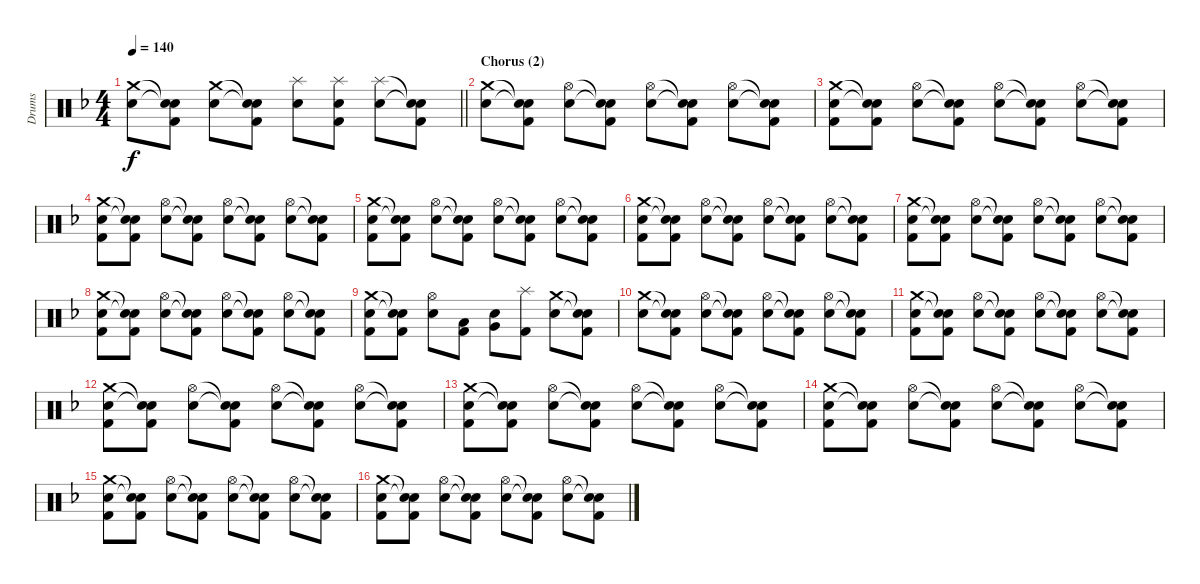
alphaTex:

\track ("Drums" "Drums") {instrument percussion}
\staff {score}
\articulation defaults
\ts (4 4)
\tempo 140
\clef neutral
\barLineRight lightlight
\ks f
("Crash medium (hit)" "Electric Snare (hit)").8{dy f} ("Snare (hit)"{t} "Snare (hit)"{t} "Kick (hit) 2").8 ("Crash medium (hit)" "Electric Snare (hit)").8 ("Snare (hit)"{t} "Snare (hit)"{t} "Kick (hit) 2").8 ("Splash (hit)" "Electric Snare (hit)").8 ("Splash (hit)" "Electric Snare (hit)" "Kick (hit) 2").8 ("Splash (hit)" "Electric Snare (hit)").8 ("Snare (hit)"{t} "Snare (hit)"{t} "Kick (hit) 2").8 |
\section ("" "Chorus (2)")
("Crash medium (hit)" "Electric Snare (hit)").8 ("Snare (hit)"{t} "Snare (hit)"{t} "Kick (hit) 2").8 ("Hi-Hat (open)" "Electric Snare (hit)").8 ("Snare (hit)"{t} "Snare (hit)"{t} "Kick (hit) 2").8 ("Hi-Hat (open)" "Electric Snare (hit)").8 ("Snare (hit)"{t} "Snare (hit)"{t} "Kick (hit) 2").8 ("Hi-Hat (open)" "Electric Snare (hit)").8 ("Snare (hit)"{t} "Snare (hit)"{t} "Kick (hit) 2").8 |
("Crash medium (hit)" "Electric Snare (hit)" "Kick (hit) 2").8 ("Snare (hit)"{t} "Snare (hit)"{t} "Kick (hit) 2").8 ("Hi-Hat (open)" "Electric Snare (hit)").8 ("Snare (hit)"{t} "Snare (hit)"{t} "Kick (hit) 2").8 ("Hi-Hat (open)" "Electric Snare (hit)").8 ("Snare (hit)"{t} "Snare (hit)"{t} "Kick (hit) 2").8 ("Hi-Hat (open)" "Electric Snare (hit)").8 ("Snare (hit)"{t} "Snare (hit)"{t} "Kick (hit) 2").8 |
("Crash medium (hit)" "Electric Snare (hit)" "Kick (hit) 2").8 ("Snare (hit)"{t} "Snare (hit)"{t} "Kick (hit) 2").8 ("Hi-Hat (open)" "Electric Snare (hit)").8 ("Snare (hit)"{t} "Snare (hit)"{t} "Kick (hit) 2").8 ("Hi-Hat (open)" "Electric Snare (hit)").8 ("Snare (hit)"{t} "Snare (hit)"{t} "Kick (hit) 2").8 ("Hi-Hat (open)" "Electric Snare (hit)").8 ("Snare (hit)"{t} "Snare (hit)"{t} "Kick (hit) 2").8 |
("Crash medium (hit)" "Electric Snare (hit)" "Kick (hit) 2").8 ("Snare (hit)"{t} "Snare (hit)"{t} "Kick (hit) 2").8 ("Hi-Hat (open)" "Electric Snare (hit)").8 ("Snare (hit)"{t} "Snare (hit)"{t} "Kick (hit) 2").8 ("Hi-Hat (open)" "Electric Snare (hit)").8 ("Snare (hit)"{t} "Snare (hit)"{t} "Kick (hit) 2").8 ("Hi-Hat (open)" "Electric Snare (hit)").8 ("Snare (hit)"{t} "Snare (hit)"{t} "Kick (hit) 2").8 |
("Crash medium (hit)" "Electric Snare (hit)" "Kick (hit) 2").8 ("Snare (hit)"{t} "Snare (hit)"{t} "Kick (hit) 2").8 ("Hi-Hat (open)" "Electric Snare (hit)").8 ("Snare (hit)"{t} "Snare (hit)"{t} "Kick (hit) 2").8 ("Hi-Hat (open)" "Electric Snare (hit)").8 ("Snare (hit)"{t} "Snare (hit)"{t} "Kick (hit) 2").8 ("Hi-Hat (open)" "Electric Snare (hit)").8 ("Snare (hit)"{t} "Snare (hit)"{t} "Kick (hit) 2").8 |
("Crash medium (hit)" "Electric Snare (hit)" "Kick (hit) 2").8 ("Snare (hit)"{t} "Snare (hit)"{t} "Kick (hit) 2").8 ("Hi-Hat (open)" "Electric Snare (hit)").8 ("Snare (hit)"{t} "Snare (hit)"{t} "Kick (hit) 2").8 ("Hi-Hat (open)" "Electric Snare (hit)").8 ("Snare (hit)"{t} "Snare (hit)"{t} "Kick (hit) 2").8 ("Hi-Hat (open)" "Electric Snare (hit)").8 ("Snare (hit)"{t} "Snare (hit)"{t} "Kick (hit) 2").8 |
("Crash medium (hit)" "Electric Snare (hit)" "Kick (hit) 2").8 ("Snare (hit)"{t} "Snare (hit)"{t} "Kick (hit) 2").8 ("Hi-Hat (open)" "Electric Snare (hit)").8 ("Snare (hit)"{t} "Snare (hit)"{t} "Kick (hit) 2").8 ("Hi-Hat (open)" "Electric Snare (hit)").8 ("Snare (hit)"{t} "Snare (hit)"{t} "Kick (hit) 2").8 ("Hi-Hat (open)" "Electric Snare (hit)").8 ("Snare (hit)"{t} "Snare (hit)"{t} "Kick (hit) 2").8 |
("Crash medium (hit)" "Electric Snare (hit)" "Kick (hit) 2").8 ("Snare (hit)"{t} "Snare (hit)"{t} "Kick (hit) 2").8 ("Hi-Hat (open)" "Electric Snare (hit)").8 ("Low Tom (hit)" "Kick (hit) 2").8 ("Electric Snare (hit)" "Very Low Tom (hit)").8 ("Splash (hit)" "Kick (hit) 2").8 ("Crash medium (hit)" "Electric Snare (hit)").8 ("Snare (hit)"{t} "Snare (hit)"{t} "Kick (hit) 2").8 |
("Crash medium (hit)" "Electric Snare (hit)").8 ("Snare (hit)"{t} "Snare (hit)"{t} "Kick (hit) 2").8 ("Hi-Hat (open)" "Electric Snare (hit)").8 ("Snare (hit)"{t} "Snare (hit)"{t} "Kick (hit) 2").8 ("Hi-Hat (open)" "Electric Snare (hit)").8 ("Snare (hit)"{t} "Snare (hit)"{t} "Kick (hit) 2").8 ("Hi-Hat (open)" "Electric Snare (hit)").8 ("Snare (hit)"{t} "Snare (hit)"{t} "Kick (hit) 2").8 |
("Crash medium (hit)" "Electric Snare (hit)" "Kick (hit) 2").8 ("Snare (hit)"{t} "Snare (hit)"{t} "Kick (hit) 2").8 ("Hi-Hat (open)" "Electric Snare (hit)").8 ("Snare (hit)"{t} "Snare (hit)"{t} "Kick (hit) 2").8 ("Hi-Hat (open)" "Electric Snare (hit)").8 ("Snare (hit)"{t} "Snare (hit)"{t} "Kick (hit) 2").8 ("Hi-Hat (open)" "Electric Snare (hit)").8 ("Snare (hit)"{t} "Snare (hit)"{t} "Kick (hit) 2").8 |
("Crash medium (hit)" "Electric Snare (hit)" "Kick (hit) 2").8 ("Snare (hit)"{t} "Snare (hit)"{t} "Kick (hit) 2").8 ("Hi-Hat (open)" "Electric Snare (hit)").8 ("Snare (hit)"{t} "Snare (hit)"{t} "Kick (hit) 2").8 ("Hi-Hat (open)" "Electric Snare (hit)").8 ("Snare (hit)"{t} "Snare (hit)"{t} "Kick (hit) 2").8 ("Hi-Hat (open)" "Electric Snare (hit)").8 ("Snare (hit)"{t} "Snare (hit)"{t} "Kick (hit) 2").8 |
("Crash medium (hit)" "Electric Snare (hit)" "Kick (hit) 2").8 ("Snare (hit)"{t} "Snare (hit)"{t} "Kick (hit) 2").8 ("Hi-Hat (open)" "Electric Snare (hit)").8 ("Snare (hit)"{t} "Snare (hit)"{t} "Kick (hit) 2").8 ("Hi-Hat (open)" "Electric Snare (hit)").8 ("Snare (hit)"{t} "Snare (hit)"{t} "Kick (hit) 2").8 ("Hi-Hat (open)" "Electric Snare (hit)").8 ("Snare (hit)"{t} "Snare (hit)"{t} "Kick (hit) 2").8 |
("Crash medium (hit)" "Electric Snare (hit)" "Kick (hit) 2").8 ("Snare (hit)"{t} "Snare (hit)"{t} "Kick (hit) 2").8 ("Hi-Hat (open)" "Electric Snare (hit)").8 ("Snare (hit)"{t} "Snare (hit)"{t} "Kick (hit) 2").8 ("Hi-Hat (open)" "Electric Snare (hit)").8 ("Snare (hit)"{t} "Snare (hit)"{t} "Kick (hit) 2").8 ("Hi-Hat (open)" "Electric Snare (hit)").8 ("Snare (hit)"{t} "Snare (hit)"{t} "Kick (hit) 2").8 |
("Crash medium (hit)" "Electric Snare (hit)" "Kick (hit) 2").8 ("Snare (hit)"{t} "Snare (hit)"{t} "Kick (hit) 2").8 ("Hi-Hat (open)" "Electric Snare (hit)").8 ("Snare (hit)"{t} "Snare (hit)"{t} "Kick (hit) 2").8 ("Hi-Hat (open)" "Electric Snare (hit)").8 ("Snare (hit)"{t} "Snare (hit)"{t} "Kick (hit) 2").8 ("Hi-Hat (open)" "Electric Snare (hit)").8 ("Snare (hit)"{t} "Snare (hit)"{t} "Kick (hit) 2").8 |
("Crash medium (hit)" "Electric Snare (hit)" "Kick (hit) 2").8 ("Snare (hit)"{t} "Snare (hit)"{t} "Kick (hit) 2").8 ("Hi-Hat (open)" "Electric Snare (hit)").8 ("Snare (hit)"{t} "Snare (hit)"{t} "Kick (hit) 2").8 ("Hi-Hat (open)" "Electric Snare (hit)").8 ("Snare (hit)"{t} "Snare (hit)"{t} "Kick (hit) 2").8 ("Hi-Hat (open)" "Electric Snare (hit)").8 ("Snare (hit)"{t} "Snare (hit)"{t} "Kick (hit) 2").8
